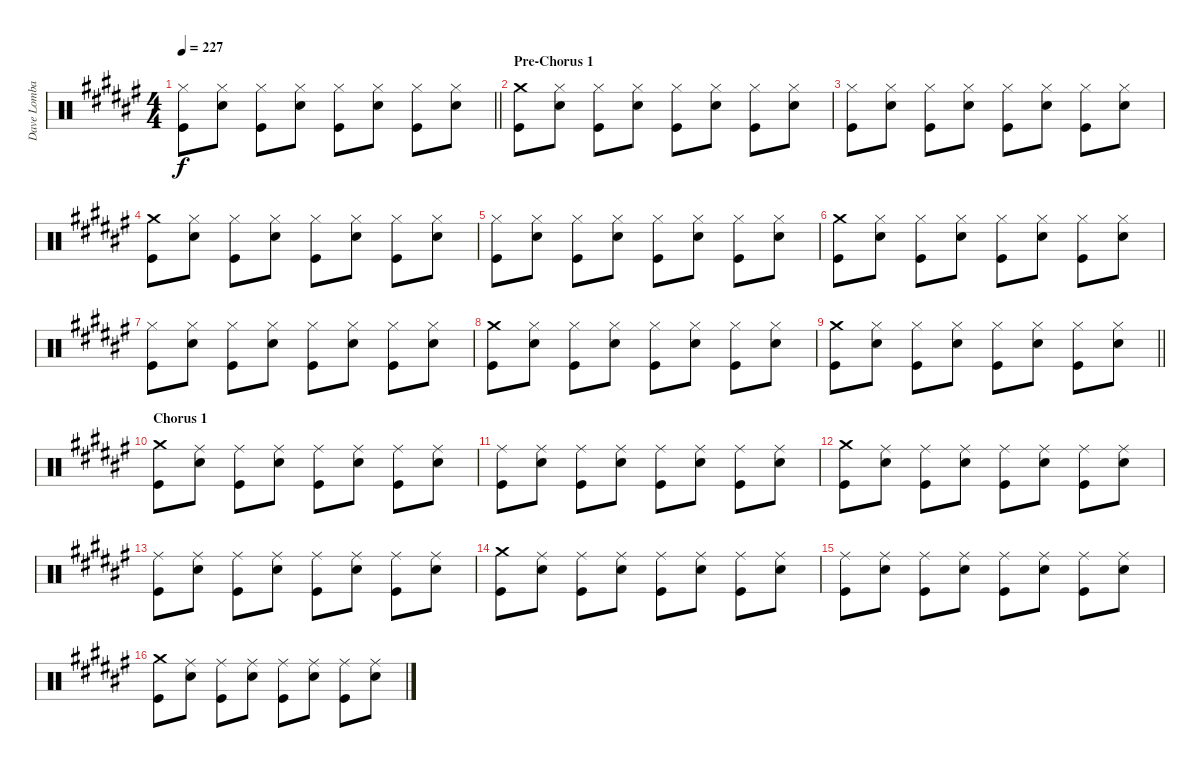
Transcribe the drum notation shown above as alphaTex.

\track ("Dave Lombardo" "Dave Lomba") {instrument percussion}
\staff {score}
\articulation defaults
\ts (4 4)
\tempo 227
\clef neutral
\barLineRight lightlight
\ks f#
("Hi-Hat (closed)" "Kick (hit)").8{dy f} ("Hi-Hat (closed)" "Snare (hit) 2").8 ("Hi-Hat (closed)" "Kick (hit)").8 ("Hi-Hat (closed)" "Snare (hit) 2").8 ("Hi-Hat (closed)" "Kick (hit)").8 ("Hi-Hat (closed)" "Snare (hit) 2").8 ("Hi-Hat (closed)" "Kick (hit)").8 ("Hi-Hat (closed)" "Snare (hit) 2").8 |
\section ("" "Pre-Chorus 1")
("Crash medium (hit)" "Kick (hit)").8 ("Hi-Hat (closed)" "Snare (hit) 2").8 ("Hi-Hat (closed)" "Kick (hit)").8 ("Hi-Hat (closed)" "Snare (hit) 2").8 ("Hi-Hat (closed)" "Kick (hit)").8 ("Hi-Hat (closed)" "Snare (hit) 2").8 ("Hi-Hat (closed)" "Kick (hit)").8 ("Hi-Hat (closed)" "Snare (hit) 2").8 |
("Hi-Hat (closed)" "Kick (hit)").8 ("Hi-Hat (closed)" "Snare (hit) 2").8 ("Hi-Hat (closed)" "Kick (hit)").8 ("Hi-Hat (closed)" "Snare (hit) 2").8 ("Hi-Hat (closed)" "Kick (hit)").8 ("Hi-Hat (closed)" "Snare (hit) 2").8 ("Hi-Hat (closed)" "Kick (hit)").8 ("Hi-Hat (closed)" "Snare (hit) 2").8 |
("Crash medium (hit)" "Kick (hit)").8 ("Hi-Hat (closed)" "Snare (hit) 2").8 ("Hi-Hat (closed)" "Kick (hit)").8 ("Hi-Hat (closed)" "Snare (hit) 2").8 ("Hi-Hat (closed)" "Kick (hit)").8 ("Hi-Hat (closed)" "Snare (hit) 2").8 ("Hi-Hat (closed)" "Kick (hit)").8 ("Hi-Hat (closed)" "Snare (hit) 2").8 |
("Hi-Hat (closed)" "Kick (hit)").8 ("Hi-Hat (closed)" "Snare (hit) 2").8 ("Hi-Hat (closed)" "Kick (hit)").8 ("Hi-Hat (closed)" "Snare (hit) 2").8 ("Hi-Hat (closed)" "Kick (hit)").8 ("Hi-Hat (closed)" "Snare (hit) 2").8 ("Hi-Hat (closed)" "Kick (hit)").8 ("Hi-Hat (closed)" "Snare (hit) 2").8 |
("Crash medium (hit)" "Kick (hit)").8 ("Hi-Hat (closed)" "Snare (hit) 2").8 ("Hi-Hat (closed)" "Kick (hit)").8 ("Hi-Hat (closed)" "Snare (hit) 2").8 ("Hi-Hat (closed)" "Kick (hit)").8 ("Hi-Hat (closed)" "Snare (hit) 2").8 ("Hi-Hat (closed)" "Kick (hit)").8 ("Hi-Hat (closed)" "Snare (hit) 2").8 |
("Hi-Hat (closed)" "Kick (hit)").8 ("Hi-Hat (closed)" "Snare (hit) 2").8 ("Hi-Hat (closed)" "Kick (hit)").8 ("Hi-Hat (closed)" "Snare (hit) 2").8 ("Hi-Hat (closed)" "Kick (hit)").8 ("Hi-Hat (closed)" "Snare (hit) 2").8 ("Hi-Hat (closed)" "Kick (hit)").8 ("Hi-Hat (closed)" "Snare (hit) 2").8 |
("Crash medium (hit)" "Kick (hit)").8 ("Hi-Hat (closed)" "Snare (hit) 2").8 ("Hi-Hat (closed)" "Kick (hit)").8 ("Hi-Hat (closed)" "Snare (hit) 2").8 ("Hi-Hat (closed)" "Kick (hit)").8 ("Hi-Hat (closed)" "Snare (hit) 2").8 ("Hi-Hat (closed)" "Kick (hit)").8 ("Hi-Hat (closed)" "Snare (hit) 2").8 |
\barLineRight lightlight
("Crash medium (hit)" "Kick (hit)").8 ("Hi-Hat (closed)" "Snare (hit) 2").8 ("Hi-Hat (closed)" "Kick (hit)").8 ("Hi-Hat (closed)" "Snare (hit) 2").8 ("Hi-Hat (closed)" "Kick (hit)").8 ("Hi-Hat (closed)" "Snare (hit) 2").8 ("Hi-Hat (closed)" "Kick (hit)").8 ("Hi-Hat (closed)" "Snare (hit) 2").8 |
\section ("" "Chorus 1")
("Crash medium (hit)" "Kick (hit)").8 ("Ride (middle)" "Snare (hit) 2").8 ("Ride (middle)" "Kick (hit)").8 ("Ride (middle)" "Snare (hit) 2").8 ("Ride (middle)" "Kick (hit)").8 ("Ride (middle)" "Snare (hit) 2").8 ("Ride (middle)" "Kick (hit)").8 ("Ride (middle)" "Snare (hit) 2").8 |
("Ride (middle)" "Kick (hit)").8 ("Ride (middle)" "Snare (hit) 2").8 ("Ride (middle)" "Kick (hit)").8 ("Ride (middle)" "Snare (hit) 2").8 ("Ride (middle)" "Kick (hit)").8 ("Ride (middle)" "Snare (hit) 2").8 ("Ride (middle)" "Kick (hit)").8 ("Ride (middle)" "Snare (hit) 2").8 |
("Crash medium (hit)" "Kick (hit)").8 ("Ride (middle)" "Snare (hit) 2").8 ("Ride (middle)" "Kick (hit)").8 ("Ride (middle)" "Snare (hit) 2").8 ("Ride (middle)" "Kick (hit)").8 ("Ride (middle)" "Snare (hit) 2").8 ("Ride (middle)" "Kick (hit)").8 ("Ride (middle)" "Snare (hit) 2").8 |
("Ride (middle)" "Kick (hit)").8 ("Ride (middle)" "Snare (hit) 2").8 ("Ride (middle)" "Kick (hit)").8 ("Ride (middle)" "Snare (hit) 2").8 ("Ride (middle)" "Kick (hit)").8 ("Ride (middle)" "Snare (hit) 2").8 ("Ride (middle)" "Kick (hit)").8 ("Ride (middle)" "Snare (hit) 2").8 |
("Crash medium (hit)" "Kick (hit)").8 ("Ride (middle)" "Snare (hit) 2").8 ("Ride (middle)" "Kick (hit)").8 ("Ride (middle)" "Snare (hit) 2").8 ("Ride (middle)" "Kick (hit)").8 ("Ride (middle)" "Snare (hit) 2").8 ("Ride (middle)" "Kick (hit)").8 ("Ride (middle)" "Snare (hit) 2").8 |
("Ride (middle)" "Kick (hit)").8 ("Ride (middle)" "Snare (hit) 2").8 ("Ride (middle)" "Kick (hit)").8 ("Ride (middle)" "Snare (hit) 2").8 ("Ride (middle)" "Kick (hit)").8 ("Ride (middle)" "Snare (hit) 2").8 ("Ride (middle)" "Kick (hit)").8 ("Ride (middle)" "Snare (hit) 2").8 |
("Crash medium (hit)" "Kick (hit)").8 ("Ride (middle)" "Snare (hit) 2").8 ("Ride (middle)" "Kick (hit)").8 ("Ride (middle)" "Snare (hit) 2").8 ("Ride (middle)" "Kick (hit)").8 ("Ride (middle)" "Snare (hit) 2").8 ("Ride (middle)" "Kick (hit)").8 ("Ride (middle)" "Snare (hit) 2").8
